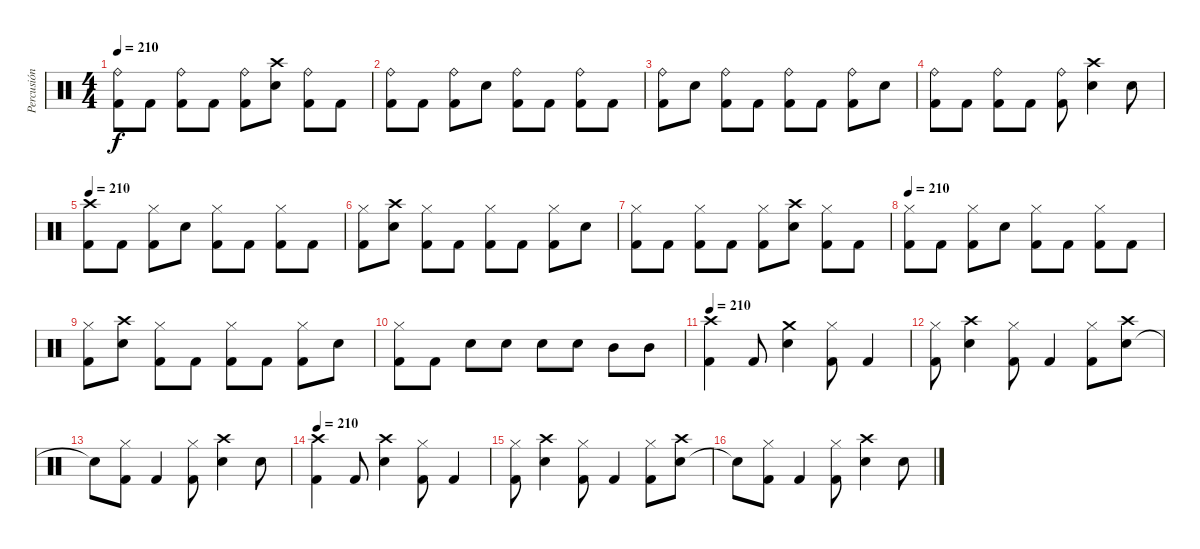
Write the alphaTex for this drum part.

\track ("Percusión" "Percusión") {instrument percussion}
\staff {score}
\articulation defaults
\ts (4 4)
\tempo 210
\clef neutral
\ks c
("Kick (hit) 2" "Ride (bell)").8{dy f} "Kick (hit) 2".8 ("Kick (hit) 2" "Ride (bell)").8 "Kick (hit) 2".8 ("Kick (hit) 2" "Ride (bell)").8 ("Snare (hit) 2" "Crash high (hit)").8 ("Kick (hit) 2" "Ride (bell)").8 "Kick (hit) 2".8 |
("Kick (hit) 2" "Ride (bell)").8 "Kick (hit) 2".8 ("Kick (hit) 2" "Ride (bell)").8 "Snare (hit) 2".8 ("Kick (hit) 2" "Ride (bell)").8 "Kick (hit) 2".8 ("Kick (hit) 2" "Ride (bell)").8 "Kick (hit) 2".8 |
("Kick (hit) 2" "Ride (bell)").8 "Snare (hit) 2".8 ("Kick (hit) 2" "Ride (bell)").8 "Kick (hit) 2".8 ("Kick (hit) 2" "Ride (bell)").8 "Kick (hit) 2".8 ("Kick (hit) 2" "Ride (bell)").8 "Snare (hit) 2".8 |
("Kick (hit) 2" "Ride (bell)").8 "Kick (hit) 2".8 ("Kick (hit) 2" "Ride (bell)").8 "Kick (hit) 2".8 ("Kick (hit) 2" "Ride (bell)").8 ("Snare (hit) 2" "Crash high (hit)").4 "Snare (hit) 2".8 |
\tempo 210
("Kick (hit) 2" "Crash high (hit)").8 "Kick (hit) 2".8 ("Kick (hit) 2" "Hi-Hat (closed)").8 "Snare (hit) 2".8 ("Kick (hit) 2" "Hi-Hat (closed)").8 "Kick (hit) 2".8 ("Kick (hit) 2" "Hi-Hat (closed)").8 "Kick (hit) 2".8 |
("Kick (hit) 2" "Hi-Hat (closed)").8 ("Snare (hit) 2" "Crash high (hit)").8 ("Kick (hit) 2" "Hi-Hat (closed)").8 "Kick (hit) 2".8 ("Kick (hit) 2" "Hi-Hat (closed)").8 "Kick (hit) 2".8 ("Kick (hit) 2" "Hi-Hat (closed)").8 "Snare (hit) 2".8 |
("Kick (hit) 2" "Hi-Hat (closed)").8 "Kick (hit) 2".8 ("Kick (hit) 2" "Hi-Hat (closed)").8 "Kick (hit) 2".8 ("Kick (hit) 2" "Hi-Hat (closed)").8 ("Snare (hit) 2" "Crash high (hit)").8 ("Kick (hit) 2" "Hi-Hat (closed)").8 "Kick (hit) 2".8 |
\tempo 210
("Kick (hit) 2" "Hi-Hat (closed)").8 "Kick (hit) 2".8 ("Kick (hit) 2" "Hi-Hat (closed)").8 "Snare (hit) 2".8 ("Kick (hit) 2" "Hi-Hat (closed)").8 "Kick (hit) 2".8 ("Kick (hit) 2" "Hi-Hat (closed)").8 "Kick (hit) 2".8 |
("Kick (hit) 2" "Hi-Hat (closed)").8 ("Snare (hit) 2" "Crash high (hit)").8 ("Kick (hit) 2" "Hi-Hat (closed)").8 "Kick (hit) 2".8 ("Kick (hit) 2" "Hi-Hat (closed)").8 "Kick (hit) 2".8 ("Kick (hit) 2" "Hi-Hat (closed)").8 "Snare (hit) 2".8 |
("Kick (hit) 2" "Hi-Hat (closed)").8 "Kick (hit) 2".8 "Snare (hit) 2".8 "Snare (hit) 2".8 "Snare (hit) 2".8 "Snare (hit) 2".8 "Mid Tom (hit)".8 "Mid Tom (hit)".8 |
\tempo 210
("Kick (hit) 2" "Crash high (hit)").4 "Kick (hit) 2".8 ("Snare (hit) 2" "Crash medium (hit)").4 ("Kick (hit) 2" "Hi-Hat (closed)").8 "Kick (hit) 2".4 |
("Kick (hit) 2" "Hi-Hat (closed)").8 ("Snare (hit) 2" "Crash high (hit)").4 ("Kick (hit) 2" "Hi-Hat (closed)").8 "Kick (hit) 2".4 ("Kick (hit) 2" "Hi-Hat (closed)").8 ("Snare (hit) 2" "Crash high (hit)").8 |
"Snare (hit)"{t}.8 ("Kick (hit) 2" "Hi-Hat (closed)").8 "Kick (hit) 2".4 ("Kick (hit) 2" "Hi-Hat (closed)").8 ("Snare (hit) 2" "Crash high (hit)").4 "Snare (hit) 2".8 |
\tempo 210
("Kick (hit) 2" "Crash high (hit)").4 "Kick (hit) 2".8 ("Snare (hit) 2" "Crash high (hit)").4 ("Kick (hit) 2" "Hi-Hat (closed)").8 "Kick (hit) 2".4 |
("Kick (hit) 2" "Hi-Hat (closed)").8 ("Snare (hit) 2" "Crash high (hit)").4 ("Kick (hit) 2" "Hi-Hat (closed)").8 "Kick (hit) 2".4 ("Kick (hit) 2" "Hi-Hat (closed)").8 ("Snare (hit) 2" "Crash high (hit)").8 |
"Snare (hit)"{t}.8 ("Kick (hit) 2" "Hi-Hat (closed)").8 "Kick (hit) 2".4 ("Kick (hit) 2" "Hi-Hat (closed)").8 ("Snare (hit) 2" "Crash high (hit)").4 "Snare (hit) 2".8
